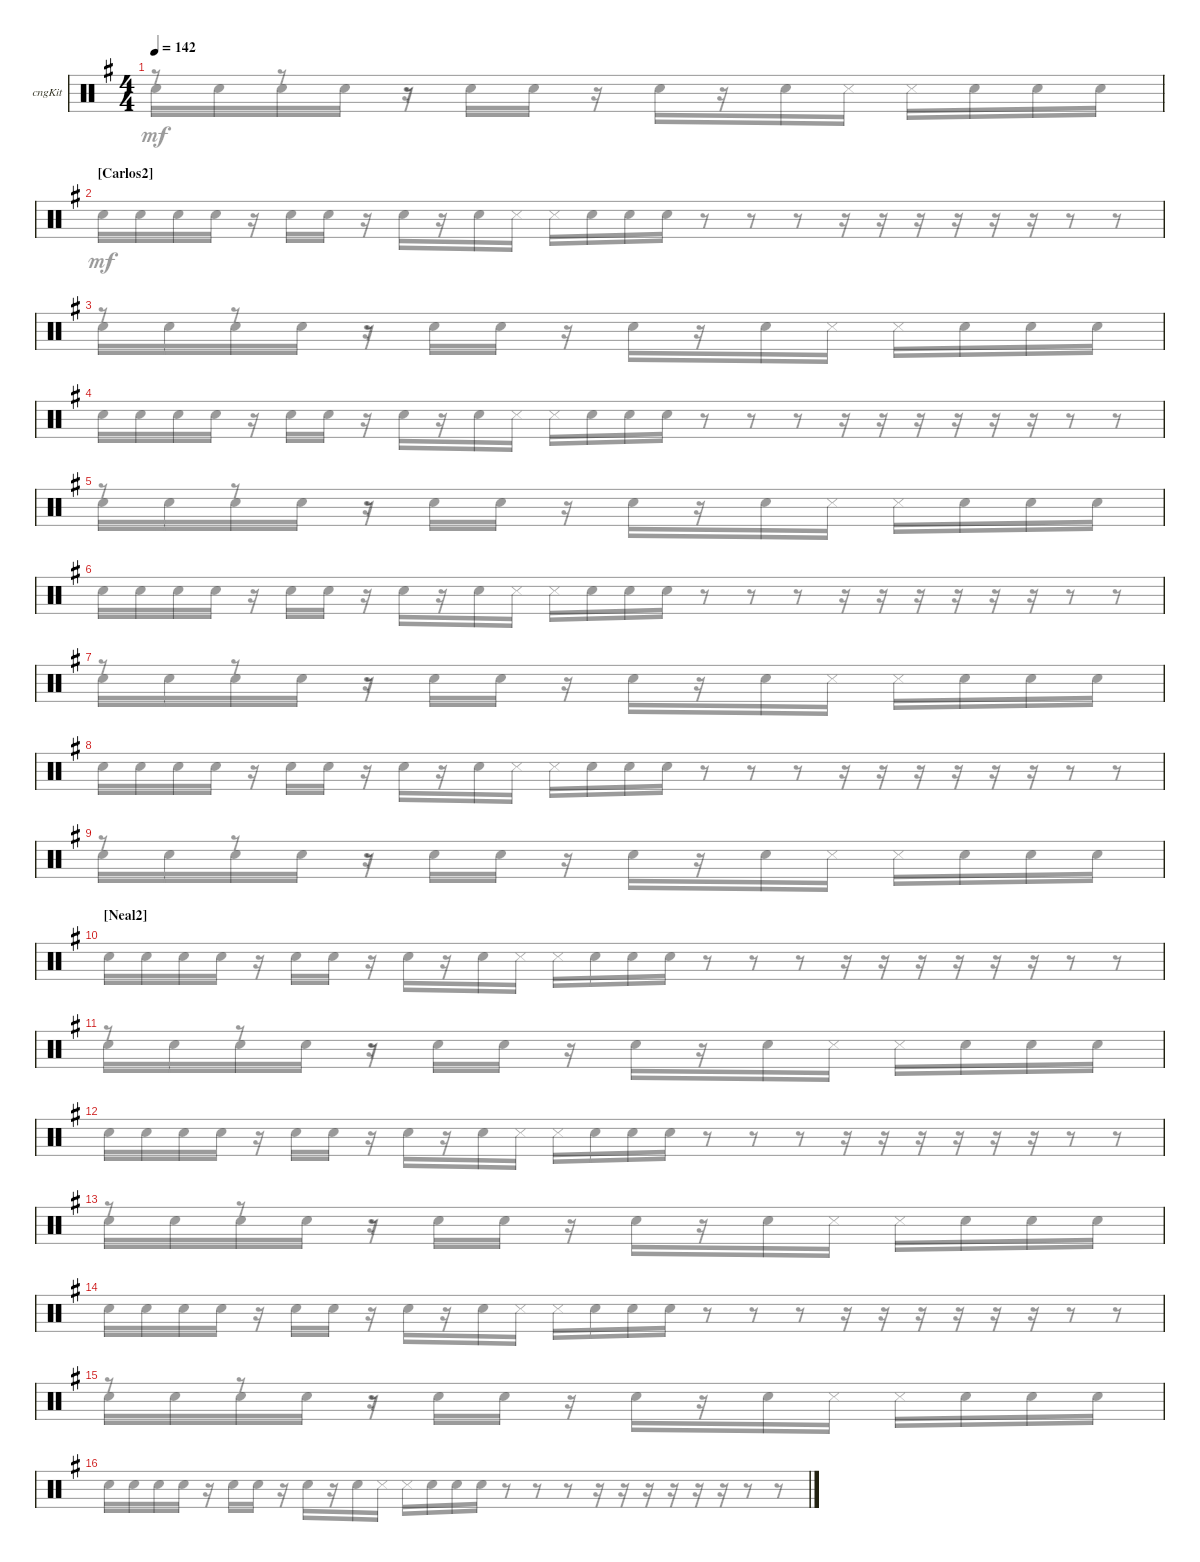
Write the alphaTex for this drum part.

\bracketExtendMode groupsimilarinstruments
\firstSystemTrackNameOrientation horizontal
\otherSystemsTrackNameOrientation horizontal
\track ("Congas" "cngKit") {instrument percussion}
\staff {score}
\articulation defaults
\voice
\ts (4 4)
\tempo 142
\clef neutral
\ks eminor
|
\section ("" "[Carlos2] ")
|
|
|
|
|
|
|
|
\section ("" "[Neal2]")
|
|
|
|
|
|
\voice
\clef neutral
\ks eminor
r.8{dy mf} r.8 r.8 |
"Snare (hit) 2".16 "Snare (hit) 2".16 "Snare (hit) 2".16 "Snare (hit) 2".16 r.16 "Snare (hit) 2".16 "Snare (hit) 2".16 r.16 "Snare (hit) 2".16 r.16 "Snare (hit) 2".16 "Snare (side stick) 3".16 "Snare (side stick) 3".16 "Snare (hit) 2".16 "Snare (hit) 2".16 "Snare (hit) 2".16 r.8 r.8 r.8 r.16 r.16 r.16 r.16 r.16 r.16 r.8 r.8 |
r.8 r.8 r.8 |
"Snare (hit) 2".16 "Snare (hit) 2".16 "Snare (hit) 2".16 "Snare (hit) 2".16 r.16 "Snare (hit) 2".16 "Snare (hit) 2".16 r.16 "Snare (hit) 2".16 r.16 "Snare (hit) 2".16 "Snare (side stick) 3".16 "Snare (side stick) 3".16 "Snare (hit) 2".16 "Snare (hit) 2".16 "Snare (hit) 2".16 r.8 r.8 r.8 r.16 r.16 r.16 r.16 r.16 r.16 r.8 r.8 |
r.8 r.8 r.8 |
"Snare (hit) 2".16 "Snare (hit) 2".16 "Snare (hit) 2".16 "Snare (hit) 2".16 r.16 "Snare (hit) 2".16 "Snare (hit) 2".16 r.16 "Snare (hit) 2".16 r.16 "Snare (hit) 2".16 "Snare (side stick) 3".16 "Snare (side stick) 3".16 "Snare (hit) 2".16 "Snare (hit) 2".16 "Snare (hit) 2".16 r.8 r.8 r.8 r.16 r.16 r.16 r.16 r.16 r.16 r.8 r.8 |
r.8 r.8 r.8 |
"Snare (hit) 2".16 "Snare (hit) 2".16 "Snare (hit) 2".16 "Snare (hit) 2".16 r.16 "Snare (hit) 2".16 "Snare (hit) 2".16 r.16 "Snare (hit) 2".16 r.16 "Snare (hit) 2".16 "Snare (side stick) 3".16 "Snare (side stick) 3".16 "Snare (hit) 2".16 "Snare (hit) 2".16 "Snare (hit) 2".16 r.8 r.8 r.8 r.16 r.16 r.16 r.16 r.16 r.16 r.8 r.8 |
r.8 r.8 r.8 |
"Snare (hit) 2".16 "Snare (hit) 2".16 "Snare (hit) 2".16 "Snare (hit) 2".16 r.16 "Snare (hit) 2".16 "Snare (hit) 2".16 r.16 "Snare (hit) 2".16 r.16 "Snare (hit) 2".16 "Snare (side stick) 3".16 "Snare (side stick) 3".16 "Snare (hit) 2".16 "Snare (hit) 2".16 "Snare (hit) 2".16 r.8 r.8 r.8 r.16 r.16 r.16 r.16 r.16 r.16 r.8 r.8 |
r.8 r.8 r.8 |
"Snare (hit) 2".16 "Snare (hit) 2".16 "Snare (hit) 2".16 "Snare (hit) 2".16 r.16 "Snare (hit) 2".16 "Snare (hit) 2".16 r.16 "Snare (hit) 2".16 r.16 "Snare (hit) 2".16 "Snare (side stick) 3".16 "Snare (side stick) 3".16 "Snare (hit) 2".16 "Snare (hit) 2".16 "Snare (hit) 2".16 r.8 r.8 r.8 r.16 r.16 r.16 r.16 r.16 r.16 r.8 r.8 |
r.8 r.8 r.8 |
"Snare (hit) 2".16 "Snare (hit) 2".16 "Snare (hit) 2".16 "Snare (hit) 2".16 r.16 "Snare (hit) 2".16 "Snare (hit) 2".16 r.16 "Snare (hit) 2".16 r.16 "Snare (hit) 2".16 "Snare (side stick) 3".16 "Snare (side stick) 3".16 "Snare (hit) 2".16 "Snare (hit) 2".16 "Snare (hit) 2".16 r.8 r.8 r.8 r.16 r.16 r.16 r.16 r.16 r.16 r.8 r.8 |
r.8 r.8 r.8 |
"Snare (hit) 2".16 "Snare (hit) 2".16 "Snare (hit) 2".16 "Snare (hit) 2".16 r.16 "Snare (hit) 2".16 "Snare (hit) 2".16 r.16 "Snare (hit) 2".16 r.16 "Snare (hit) 2".16 "Snare (side stick) 3".16 "Snare (side stick) 3".16 "Snare (hit) 2".16 "Snare (hit) 2".16 "Snare (hit) 2".16 r.8 r.8 r.8 r.16 r.16 r.16 r.16 r.16 r.16 r.8 r.8
\voice
\clef neutral
\ottava regular
\simile none
\ks eminor "Snare (hit) 2".16{dy mf} "Snare (hit) 2".16 "Snare (hit) 2".16 "Snare (hit) 2".16
r.16 "Snare (hit) 2".16 "Snare (hit) 2".16 r.16 "Snare (hit) 2".16 r.16 "Snare (hit) 2".16 "Snare (side stick) 3".16 "Snare (side stick) 3".16 "Snare (hit) 2".16 "Snare (hit) 2".16 "Snare (hit) 2".16 |
|
"Snare (hit) 2".16 "Snare (hit) 2".16 "Snare (hit) 2".16 "Snare (hit) 2".16 r.16 "Snare (hit) 2".16 "Snare (hit) 2".16 r.16 "Snare (hit) 2".16 r.16 "Snare (hit) 2".16 "Snare (side stick) 3".16 "Snare (side stick) 3".16 "Snare (hit) 2".16 "Snare (hit) 2".16 "Snare (hit) 2".16 |
|
"Snare (hit) 2".16 "Snare (hit) 2".16 "Snare (hit) 2".16 "Snare (hit) 2".16 r.16 "Snare (hit) 2".16 "Snare (hit) 2".16 r.16 "Snare (hit) 2".16 r.16 "Snare (hit) 2".16 "Snare (side stick) 3".16 "Snare (side stick) 3".16 "Snare (hit) 2".16 "Snare (hit) 2".16 "Snare (hit) 2".16 |
|
"Snare (hit) 2".16 "Snare (hit) 2".16 "Snare (hit) 2".16 "Snare (hit) 2".16 r.16 "Snare (hit) 2".16 "Snare (hit) 2".16 r.16 "Snare (hit) 2".16 r.16 "Snare (hit) 2".16 "Snare (side stick) 3".16 "Snare (side stick) 3".16 "Snare (hit) 2".16 "Snare (hit) 2".16 "Snare (hit) 2".16 |
|
"Snare (hit) 2".16 "Snare (hit) 2".16 "Snare (hit) 2".16 "Snare (hit) 2".16 r.16 "Snare (hit) 2".16 "Snare (hit) 2".16 r.16 "Snare (hit) 2".16 r.16 "Snare (hit) 2".16 "Snare (side stick) 3".16 "Snare (side stick) 3".16 "Snare (hit) 2".16 "Snare (hit) 2".16 "Snare (hit) 2".16 |
|
"Snare (hit) 2".16 "Snare (hit) 2".16 "Snare (hit) 2".16 "Snare (hit) 2".16 r.16 "Snare (hit) 2".16 "Snare (hit) 2".16 r.16 "Snare (hit) 2".16 r.16 "Snare (hit) 2".16 "Snare (side stick) 3".16 "Snare (side stick) 3".16 "Snare (hit) 2".16 "Snare (hit) 2".16 "Snare (hit) 2".16 |
|
"Snare (hit) 2".16 "Snare (hit) 2".16 "Snare (hit) 2".16 "Snare (hit) 2".16 r.16 "Snare (hit) 2".16 "Snare (hit) 2".16 r.16 "Snare (hit) 2".16 r.16 "Snare (hit) 2".16 "Snare (side stick) 3".16 "Snare (side stick) 3".16 "Snare (hit) 2".16 "Snare (hit) 2".16 "Snare (hit) 2".16 |
|
"Snare (hit) 2".16 "Snare (hit) 2".16 "Snare (hit) 2".16 "Snare (hit) 2".16 r.16 "Snare (hit) 2".16 "Snare (hit) 2".16 r.16 "Snare (hit) 2".16 r.16 "Snare (hit) 2".16 "Snare (side stick) 3".16 "Snare (side stick) 3".16 "Snare (hit) 2".16 "Snare (hit) 2".16 "Snare (hit) 2".16 |
